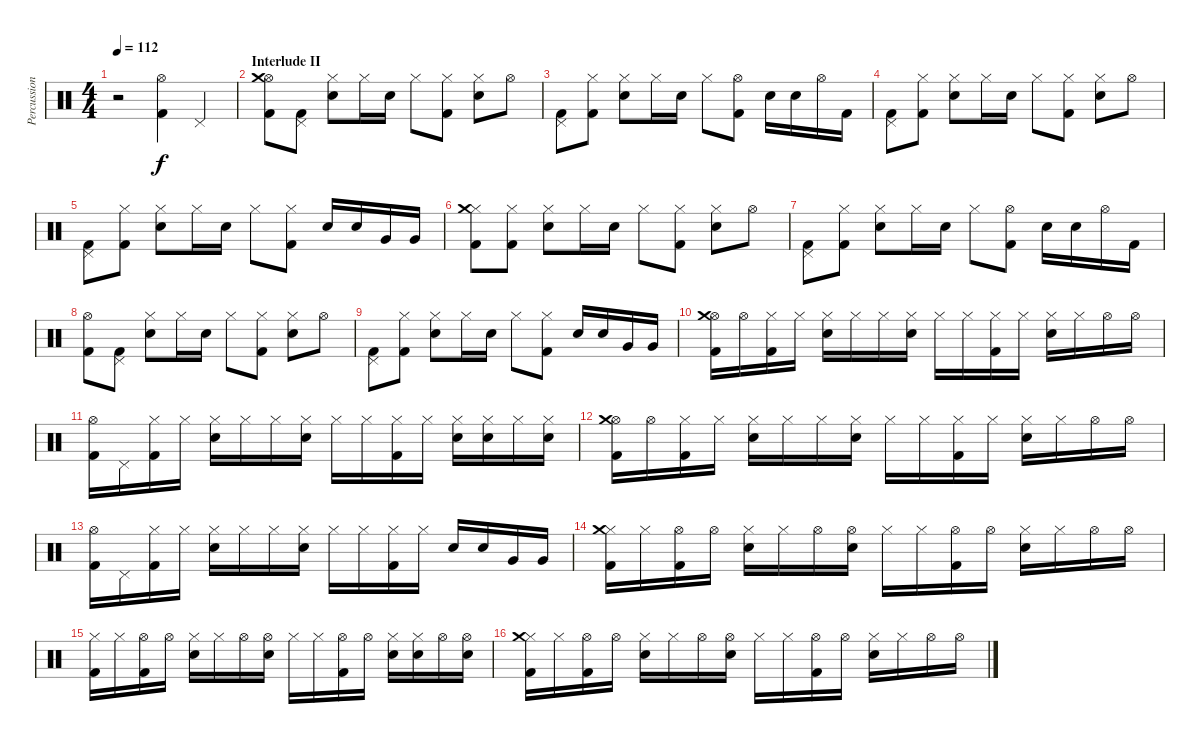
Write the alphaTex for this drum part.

\track ("Percussion" "Percussion") {instrument percussion}
\staff {score}
\articulation defaults
\ts (4 4)
\tempo 112
\clef neutral
\ks c
r.2{dy f} ("Kick (hit) 2" "Hi-Hat (open)").4 "Pedal Hi-Hat (hit)".4 |
\section ("" "Interlude II")
("Kick (hit) 2" "Hi-Hat (open)" "Crash medium (hit)").8 ("Kick (hit) 2" "Pedal Hi-Hat (hit)").8 ("Electric Snare (hit)" "Hi-Hat (closed)").8 "Hi-Hat (closed)".16 "Electric Snare (hit)".16 "Hi-Hat (closed)".8 ("Kick (hit) 2" "Hi-Hat (closed)").8 ("Electric Snare (hit)" "Hi-Hat (closed)").8 "Hi-Hat (open)".8 |
("Kick (hit) 2" "Pedal Hi-Hat (hit)").8 ("Kick (hit) 2" "Hi-Hat (closed)").8 ("Electric Snare (hit)" "Hi-Hat (closed)").8 "Hi-Hat (closed)".16 "Electric Snare (hit)".16 "Hi-Hat (closed)".8 ("Kick (hit) 2" "Hi-Hat (open)").8 "Electric Snare (hit)".16 "Electric Snare (hit)".16 "Hi-Hat (open)".16 "Kick (hit) 2".16 |
("Kick (hit) 2" "Pedal Hi-Hat (hit)").8 ("Kick (hit) 2" "Hi-Hat (closed)").8 ("Electric Snare (hit)" "Hi-Hat (closed)").8 "Hi-Hat (closed)".16 "Electric Snare (hit)".16 "Hi-Hat (closed)".8 ("Kick (hit) 2" "Hi-Hat (closed)").8 ("Electric Snare (hit)" "Hi-Hat (closed)").8 "Hi-Hat (open)".8 |
("Kick (hit) 2" "Pedal Hi-Hat (hit)").8 ("Kick (hit) 2" "Hi-Hat (closed)").8 ("Electric Snare (hit)" "Hi-Hat (closed)").8 "Hi-Hat (closed)".16 "Electric Snare (hit)".16 "Hi-Hat (closed)".8 ("Kick (hit) 2" "Hi-Hat (closed)").8 "Electric Snare (hit)".16 "Electric Snare (hit)".16 "Very Low Tom (hit)".16 "Very Low Tom (hit)".16 |
("Kick (hit) 2" "Hi-Hat (closed)" "Crash medium (hit)").8 ("Kick (hit) 2" "Hi-Hat (closed)").8 ("Electric Snare (hit)" "Hi-Hat (closed)").8 "Hi-Hat (closed)".16 "Electric Snare (hit)".16 "Hi-Hat (closed)".8 ("Kick (hit) 2" "Hi-Hat (closed)").8 ("Electric Snare (hit)" "Hi-Hat (closed)").8 "Hi-Hat (open)".8 |
("Kick (hit) 2" "Pedal Hi-Hat (hit)").8 ("Kick (hit) 2" "Hi-Hat (closed)").8 ("Electric Snare (hit)" "Hi-Hat (closed)").8 "Hi-Hat (closed)".16 "Electric Snare (hit)".16 "Hi-Hat (closed)".8 ("Kick (hit) 2" "Hi-Hat (open)").8 "Electric Snare (hit)".16 "Electric Snare (hit)".16 "Hi-Hat (open)".16 "Kick (hit) 2".16 |
("Kick (hit) 2" "Hi-Hat (open)").8 ("Kick (hit) 2" "Pedal Hi-Hat (hit)").8 ("Electric Snare (hit)" "Hi-Hat (closed)").8 "Hi-Hat (closed)".16 "Electric Snare (hit)".16 "Hi-Hat (closed)".8 ("Kick (hit) 2" "Hi-Hat (closed)").8 ("Electric Snare (hit)" "Hi-Hat (closed)").8 "Hi-Hat (open)".8 |
("Kick (hit) 2" "Pedal Hi-Hat (hit)").8 ("Kick (hit) 2" "Hi-Hat (closed)").8 ("Electric Snare (hit)" "Hi-Hat (closed)").8 "Hi-Hat (closed)".16 "Electric Snare (hit)".16 "Hi-Hat (closed)".8 ("Kick (hit) 2" "Hi-Hat (closed)").8 "Electric Snare (hit)".16 "Electric Snare (hit)".16 "Very Low Tom (hit)".16 "Very Low Tom (hit)".16 |
("Kick (hit) 2" "Hi-Hat (open)" "Crash medium (hit)").16 "Hi-Hat (open)".16 ("Kick (hit) 2" "Hi-Hat (closed)").16 "Hi-Hat (closed)".16 ("Electric Snare (hit)" "Hi-Hat (closed)").16 "Hi-Hat (closed)".16 "Hi-Hat (closed)".16 ("Electric Snare (hit)" "Hi-Hat (closed)").16 "Hi-Hat (closed)".16 "Hi-Hat (closed)".16 ("Kick (hit) 2" "Hi-Hat (closed)").16 "Hi-Hat (closed)".16 ("Electric Snare (hit)" "Hi-Hat (closed)").16 "Hi-Hat (closed)".16 "Hi-Hat (open)".16 "Hi-Hat (open)".16 |
("Kick (hit) 2" "Hi-Hat (open)").16 "Pedal Hi-Hat (hit)".16 ("Kick (hit) 2" "Hi-Hat (closed)").16 "Hi-Hat (closed)".16 ("Electric Snare (hit)" "Hi-Hat (closed)").16 "Hi-Hat (closed)".16 "Hi-Hat (closed)".16 ("Electric Snare (hit)" "Hi-Hat (closed)").16 "Hi-Hat (closed)".16 "Hi-Hat (closed)".16 ("Kick (hit) 2" "Hi-Hat (closed)").16 "Hi-Hat (closed)".16 ("Electric Snare (hit)" "Hi-Hat (closed)").16 ("Electric Snare (hit)" "Hi-Hat (closed)").16 "Hi-Hat (closed)".16 ("Electric Snare (hit)" "Hi-Hat (closed)").16 |
("Kick (hit) 2" "Hi-Hat (open)" "Crash medium (hit)").16 "Hi-Hat (open)".16 ("Kick (hit) 2" "Hi-Hat (closed)").16 "Hi-Hat (closed)".16 ("Electric Snare (hit)" "Hi-Hat (closed)").16 "Hi-Hat (closed)".16 "Hi-Hat (closed)".16 ("Electric Snare (hit)" "Hi-Hat (closed)").16 "Hi-Hat (closed)".16 "Hi-Hat (closed)".16 ("Kick (hit) 2" "Hi-Hat (closed)").16 "Hi-Hat (closed)".16 ("Electric Snare (hit)" "Hi-Hat (closed)").16 "Hi-Hat (closed)".16 "Hi-Hat (open)".16 "Hi-Hat (open)".16 |
("Kick (hit) 2" "Hi-Hat (open)").16 "Pedal Hi-Hat (hit)".16 ("Kick (hit) 2" "Hi-Hat (closed)").16 "Hi-Hat (closed)".16 ("Electric Snare (hit)" "Hi-Hat (closed)").16 "Hi-Hat (closed)".16 "Hi-Hat (closed)".16 ("Electric Snare (hit)" "Hi-Hat (closed)").16 "Hi-Hat (closed)".16 "Hi-Hat (closed)".16 ("Kick (hit) 2" "Hi-Hat (closed)").16 "Hi-Hat (closed)".16 "Electric Snare (hit)".16 "Electric Snare (hit)".16 "Very Low Tom (hit)".16 "Very Low Tom (hit)".16 |
("Kick (hit) 2" "Hi-Hat (closed)" "Crash medium (hit)").16 "Hi-Hat (closed)".16 ("Kick (hit) 2" "Hi-Hat (open)").16 "Hi-Hat (open)".16 ("Electric Snare (hit)" "Hi-Hat (closed)").16 "Hi-Hat (closed)".16 "Hi-Hat (open)".16 ("Electric Snare (hit)" "Hi-Hat (open)").16 "Hi-Hat (closed)".16 "Hi-Hat (closed)".16 ("Kick (hit) 2" "Hi-Hat (open)").16 "Hi-Hat (open)".16 ("Electric Snare (hit)" "Hi-Hat (closed)").16 "Hi-Hat (closed)".16 "Hi-Hat (open)".16 "Hi-Hat (open)".16 |
("Kick (hit) 2" "Hi-Hat (closed)").16 "Hi-Hat (closed)".16 ("Kick (hit) 2" "Hi-Hat (open)").16 "Hi-Hat (open)".16 ("Electric Snare (hit)" "Hi-Hat (closed)").16 "Hi-Hat (closed)".16 "Hi-Hat (open)".16 ("Electric Snare (hit)" "Hi-Hat (open)").16 "Hi-Hat (closed)".16 "Hi-Hat (closed)".16 ("Kick (hit) 2" "Hi-Hat (open)").16 "Hi-Hat (open)".16 ("Electric Snare (hit)" "Hi-Hat (closed)").16 ("Electric Snare (hit)" "Hi-Hat (closed)").16 "Hi-Hat (open)".16 ("Electric Snare (hit)" "Hi-Hat (open)").16 |
("Kick (hit) 2" "Hi-Hat (closed)" "Crash medium (hit)").16 "Hi-Hat (closed)".16 ("Kick (hit) 2" "Hi-Hat (open)").16 "Hi-Hat (open)".16 ("Electric Snare (hit)" "Hi-Hat (closed)").16 "Hi-Hat (closed)".16 "Hi-Hat (open)".16 ("Electric Snare (hit)" "Hi-Hat (open)").16 "Hi-Hat (closed)".16 "Hi-Hat (closed)".16 ("Kick (hit) 2" "Hi-Hat (open)").16 "Hi-Hat (open)".16 ("Electric Snare (hit)" "Hi-Hat (closed)").16 "Hi-Hat (closed)".16 "Hi-Hat (open)".16 "Hi-Hat (open)".16
